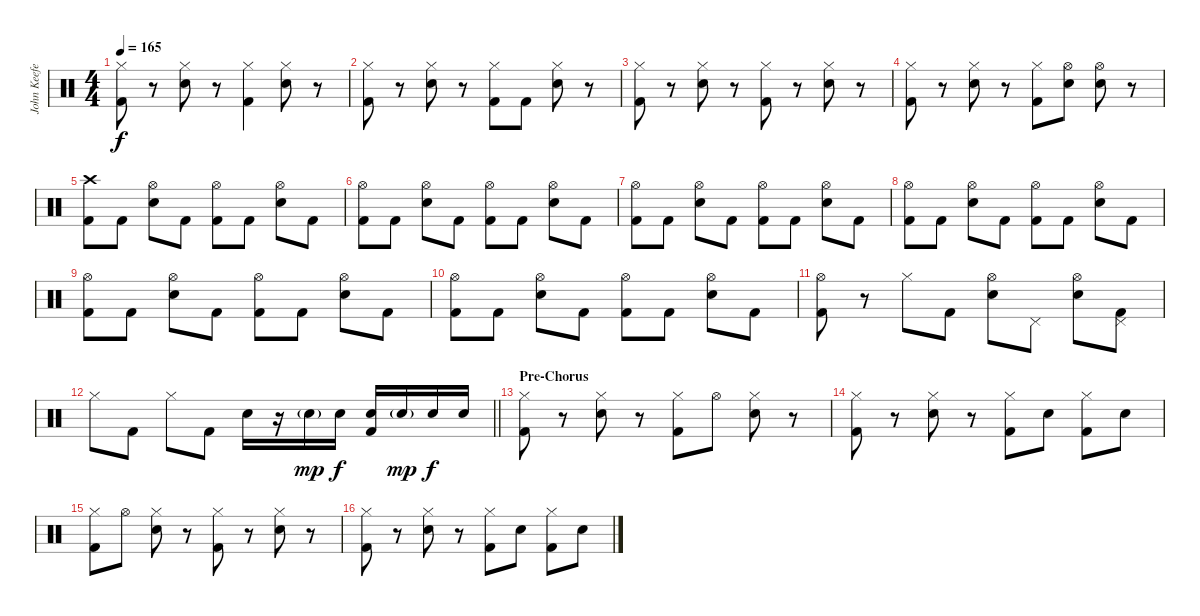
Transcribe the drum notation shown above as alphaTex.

\track ("John Keefe (Percussion)" "John Keefe") {instrument percussion}
\staff {score}
\articulation defaults
\ts (4 4)
\tempo 165
\clef neutral
\ks c
("Hi-Hat (closed)" "Kick (hit) 2").8{dy f} r.8 ("Hi-Hat (closed)" "Electric Snare (hit)").8 r.8 ("Hi-Hat (closed)" "Kick (hit) 2").4 ("Hi-Hat (closed)" "Electric Snare (hit)").8 r.8 |
("Hi-Hat (closed)" "Kick (hit) 2").8 r.8 ("Hi-Hat (closed)" "Electric Snare (hit)").8 r.8 ("Hi-Hat (closed)" "Kick (hit) 2").8 "Kick (hit) 2".8 ("Hi-Hat (closed)" "Electric Snare (hit)").8 r.8 |
("Hi-Hat (closed)" "Kick (hit) 2").8 r.8 ("Hi-Hat (closed)" "Electric Snare (hit)").8 r.8 ("Hi-Hat (closed)" "Kick (hit) 2").8 r.8 ("Hi-Hat (closed)" "Electric Snare (hit)").8 r.8 |
("Hi-Hat (closed)" "Kick (hit) 2").8 r.8 ("Hi-Hat (closed)" "Electric Snare (hit)").8 r.8 ("Hi-Hat (closed)" "Kick (hit) 2").8 ("Hi-Hat (open)" "Electric Snare (hit)").8 ("Hi-Hat (open)" "Electric Snare (hit)").8 r.8 |
("Crash high (hit)" "Kick (hit) 2").8 "Kick (hit) 2".8 ("Hi-Hat (open)" "Electric Snare (hit)").8 "Kick (hit) 2".8 ("Hi-Hat (open)" "Kick (hit) 2").8 "Kick (hit) 2".8 ("Hi-Hat (open)" "Electric Snare (hit)").8 "Kick (hit) 2".8 |
("Hi-Hat (open)" "Kick (hit) 2").8 "Kick (hit) 2".8 ("Hi-Hat (open)" "Electric Snare (hit)").8 "Kick (hit) 2".8 ("Hi-Hat (open)" "Kick (hit) 2").8 "Kick (hit) 2".8 ("Hi-Hat (open)" "Electric Snare (hit)").8 "Kick (hit) 2".8 |
("Hi-Hat (open)" "Kick (hit) 2").8 "Kick (hit) 2".8 ("Hi-Hat (open)" "Electric Snare (hit)").8 "Kick (hit) 2".8 ("Hi-Hat (open)" "Kick (hit) 2").8 "Kick (hit) 2".8 ("Hi-Hat (open)" "Electric Snare (hit)").8 "Kick (hit) 2".8 |
("Hi-Hat (open)" "Kick (hit) 2").8 "Kick (hit) 2".8 ("Hi-Hat (open)" "Electric Snare (hit)").8 "Kick (hit) 2".8 ("Hi-Hat (open)" "Kick (hit) 2").8 "Kick (hit) 2".8 ("Hi-Hat (open)" "Electric Snare (hit)").8 "Kick (hit) 2".8 |
("Hi-Hat (open)" "Kick (hit) 2").8 "Kick (hit) 2".8 ("Hi-Hat (open)" "Electric Snare (hit)").8 "Kick (hit) 2".8 ("Hi-Hat (open)" "Kick (hit) 2").8 "Kick (hit) 2".8 ("Hi-Hat (open)" "Electric Snare (hit)").8 "Kick (hit) 2".8 |
("Hi-Hat (open)" "Kick (hit) 2").8 "Kick (hit) 2".8 ("Hi-Hat (open)" "Electric Snare (hit)").8 "Kick (hit) 2".8 ("Hi-Hat (open)" "Kick (hit) 2").8 "Kick (hit) 2".8 ("Hi-Hat (open)" "Electric Snare (hit)").8 "Kick (hit) 2".8 |
("Hi-Hat (open)" "Kick (hit) 2").8 r.8 "Hi-Hat (closed)".8 "Kick (hit) 2".8 ("Hi-Hat (open)" "Electric Snare (hit)").8 "Pedal Hi-Hat (hit)".8 ("Hi-Hat (open)" "Electric Snare (hit)").8 ("Pedal Hi-Hat (hit)" "Kick (hit) 2").8 |
\barLineRight lightlight "Hi-Hat (closed)".8 "Kick (hit) 2".8 "Hi-Hat (closed)".8 "Kick (hit) 2".8 "Electric Snare (hit)".16
r.16 "Electric Snare (hit)"{g}.16{dy mp} "Electric Snare (hit)".16{dy f} ("Electric Snare (hit)" "Kick (hit) 2").16 "Electric Snare (hit)"{g}.16{dy mp} "Electric Snare (hit)".16{dy f} "Electric Snare (hit)".16 |
\section ("" "Pre-Chorus")
("Hi-Hat (closed)" "Kick (hit) 2").8 r.8 ("Hi-Hat (closed)" "Electric Snare (hit)").8 r.8 ("Hi-Hat (closed)" "Kick (hit) 2").8 "Hi-Hat (open)".8 ("Hi-Hat (closed)" "Electric Snare (hit)").8 r.8 |
("Hi-Hat (closed)" "Kick (hit) 2").8 r.8 ("Hi-Hat (closed)" "Electric Snare (hit)").8 r.8 ("Hi-Hat (closed)" "Kick (hit) 2").8 "Electric Snare (hit)".8 ("Hi-Hat (closed)" "Kick (hit) 2").8 "Electric Snare (hit)".8 |
("Hi-Hat (closed)" "Kick (hit) 2").8 "Hi-Hat (open)".8 ("Hi-Hat (closed)" "Electric Snare (hit)").8 r.8 ("Hi-Hat (closed)" "Kick (hit) 2").8 r.8 ("Hi-Hat (closed)" "Electric Snare (hit)").8 r.8 |
("Hi-Hat (closed)" "Kick (hit) 2").8 r.8 ("Hi-Hat (closed)" "Electric Snare (hit)").8 r.8 ("Hi-Hat (closed)" "Kick (hit) 2").8 "Electric Snare (hit)".8 ("Hi-Hat (closed)" "Kick (hit) 2").8 "Electric Snare (hit)".8
